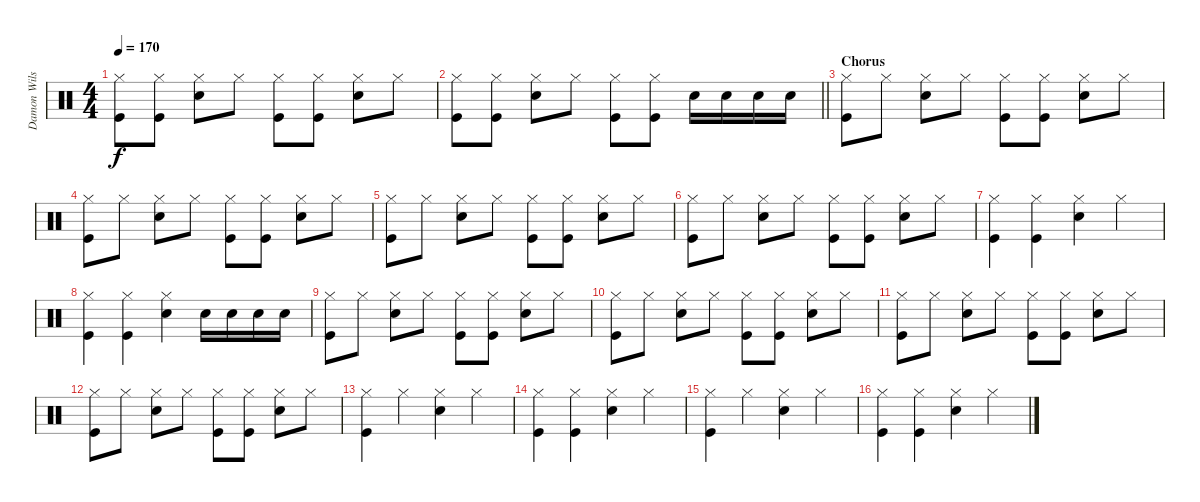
\track ("Damon Wilson" "Damon Wils") {instrument percussion}
\staff {score}
\articulation defaults
\ts (4 4)
\tempo 170
\clef neutral
\ks c
("Hi-Hat (closed)" "Kick (hit)").8{dy f} ("Hi-Hat (closed)" "Kick (hit)").8 ("Hi-Hat (closed)" "Snare (hit) 2").8 "Hi-Hat (closed)".8 ("Hi-Hat (closed)" "Kick (hit)").8 ("Hi-Hat (closed)" "Kick (hit)").8 ("Hi-Hat (closed)" "Snare (hit) 2").8 "Hi-Hat (closed)".8 |
\barLineRight lightlight
("Hi-Hat (closed)" "Kick (hit)").8 ("Hi-Hat (closed)" "Kick (hit)").8 ("Hi-Hat (closed)" "Snare (hit) 2").8 "Hi-Hat (closed)".8 ("Hi-Hat (closed)" "Kick (hit)").8 ("Hi-Hat (closed)" "Kick (hit)").8 "Snare (hit) 2".16 "Snare (hit) 2".16 "Snare (hit) 2".16 "Snare (hit) 2".16 |
\section ("" "Chorus")
("Hi-Hat (closed)" "Kick (hit)").8 "Hi-Hat (closed)".8 ("Hi-Hat (closed)" "Snare (hit) 2").8 "Hi-Hat (closed)".8 ("Hi-Hat (closed)" "Kick (hit)").8 ("Hi-Hat (closed)" "Kick (hit)").8 ("Hi-Hat (closed)" "Snare (hit) 2").8 "Hi-Hat (closed)".8 |
("Hi-Hat (closed)" "Kick (hit)").8 "Hi-Hat (closed)".8 ("Hi-Hat (closed)" "Snare (hit) 2").8 "Hi-Hat (closed)".8 ("Hi-Hat (closed)" "Kick (hit)").8 ("Hi-Hat (closed)" "Kick (hit)").8 ("Hi-Hat (closed)" "Snare (hit) 2").8 "Hi-Hat (closed)".8 |
("Hi-Hat (closed)" "Kick (hit)").8 "Hi-Hat (closed)".8 ("Hi-Hat (closed)" "Snare (hit) 2").8 "Hi-Hat (closed)".8 ("Hi-Hat (closed)" "Kick (hit)").8 ("Hi-Hat (closed)" "Kick (hit)").8 ("Hi-Hat (closed)" "Snare (hit) 2").8 "Hi-Hat (closed)".8 |
("Hi-Hat (closed)" "Kick (hit)").8 "Hi-Hat (closed)".8 ("Hi-Hat (closed)" "Snare (hit) 2").8 "Hi-Hat (closed)".8 ("Hi-Hat (closed)" "Kick (hit)").8 ("Hi-Hat (closed)" "Kick (hit)").8 ("Hi-Hat (closed)" "Snare (hit) 2").8 "Hi-Hat (closed)".8 |
("Hi-Hat (closed)" "Kick (hit)").4 ("Hi-Hat (closed)" "Kick (hit)").4 ("Hi-Hat (closed)" "Snare (hit) 2").4 "Hi-Hat (closed)".4 |
("Hi-Hat (closed)" "Kick (hit)").4 ("Hi-Hat (closed)" "Kick (hit)").4 ("Hi-Hat (closed)" "Snare (hit) 2").4 "Snare (hit) 2".16 "Snare (hit) 2".16 "Snare (hit) 2".16 "Snare (hit) 2".16 |
("Hi-Hat (closed)" "Kick (hit)").8 "Hi-Hat (closed)".8 ("Hi-Hat (closed)" "Snare (hit) 2").8 "Hi-Hat (closed)".8 ("Hi-Hat (closed)" "Kick (hit)").8 ("Hi-Hat (closed)" "Kick (hit)").8 ("Hi-Hat (closed)" "Snare (hit) 2").8 "Hi-Hat (closed)".8 |
("Hi-Hat (closed)" "Kick (hit)").8 "Hi-Hat (closed)".8 ("Hi-Hat (closed)" "Snare (hit) 2").8 "Hi-Hat (closed)".8 ("Hi-Hat (closed)" "Kick (hit)").8 ("Hi-Hat (closed)" "Kick (hit)").8 ("Hi-Hat (closed)" "Snare (hit) 2").8 "Hi-Hat (closed)".8 |
("Hi-Hat (closed)" "Kick (hit)").8 "Hi-Hat (closed)".8 ("Hi-Hat (closed)" "Snare (hit) 2").8 "Hi-Hat (closed)".8 ("Hi-Hat (closed)" "Kick (hit)").8 ("Hi-Hat (closed)" "Kick (hit)").8 ("Hi-Hat (closed)" "Snare (hit) 2").8 "Hi-Hat (closed)".8 |
("Hi-Hat (closed)" "Kick (hit)").8 "Hi-Hat (closed)".8 ("Hi-Hat (closed)" "Snare (hit) 2").8 "Hi-Hat (closed)".8 ("Hi-Hat (closed)" "Kick (hit)").8 ("Hi-Hat (closed)" "Kick (hit)").8 ("Hi-Hat (closed)" "Snare (hit) 2").8 "Hi-Hat (closed)".8 |
("Hi-Hat (closed)" "Kick (hit)").4 "Hi-Hat (closed)".4 ("Hi-Hat (closed)" "Snare (hit) 2").4 "Hi-Hat (closed)".4 |
("Hi-Hat (closed)" "Kick (hit)").4 ("Hi-Hat (closed)" "Kick (hit)").4 ("Hi-Hat (closed)" "Snare (hit) 2").4 "Hi-Hat (closed)".4 |
("Hi-Hat (closed)" "Kick (hit)").4 "Hi-Hat (closed)".4 ("Hi-Hat (closed)" "Snare (hit) 2").4 "Hi-Hat (closed)".4 |
("Hi-Hat (closed)" "Kick (hit)").4 ("Hi-Hat (closed)" "Kick (hit)").4 ("Hi-Hat (closed)" "Snare (hit) 2").4 "Hi-Hat (closed)".4
